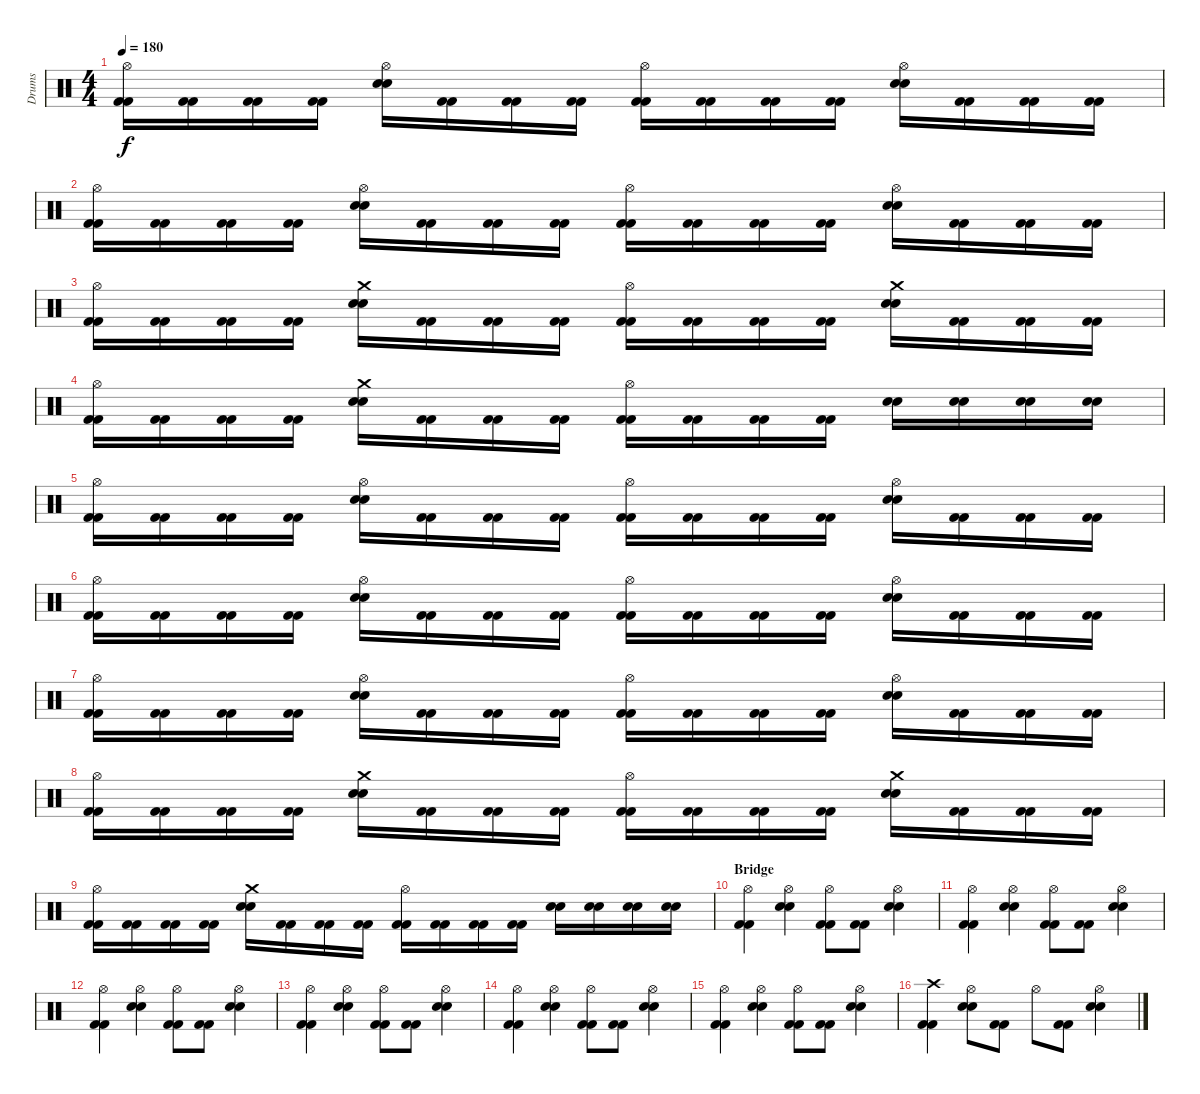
\track ("Drums" "Drums") {instrument percussion}
\staff {score}
\articulation defaults
\ts (4 4)
\tempo 180
\clef neutral
\ks c
("Hi-Hat (open)" "Kick (hit) 2" "Kick (hit) 2").16{dy f} ("Kick (hit) 2" "Kick (hit) 2").16 ("Kick (hit) 2" "Kick (hit) 2").16 ("Kick (hit) 2" "Kick (hit) 2").16 ("Hi-Hat (open)" "Snare (hit) 2" "Snare (hit) 2").16 ("Kick (hit) 2" "Kick (hit) 2").16 ("Kick (hit) 2" "Kick (hit) 2").16 ("Kick (hit) 2" "Kick (hit) 2").16 ("Hi-Hat (open)" "Kick (hit) 2" "Kick (hit) 2").16 ("Kick (hit) 2" "Kick (hit) 2").16 ("Kick (hit) 2" "Kick (hit) 2").16 ("Kick (hit) 2" "Kick (hit) 2").16 ("Hi-Hat (open)" "Snare (hit) 2" "Snare (hit) 2").16 ("Kick (hit) 2" "Kick (hit) 2").16 ("Kick (hit) 2" "Kick (hit) 2").16 ("Kick (hit) 2" "Kick (hit) 2").16 |
("Hi-Hat (open)" "Kick (hit) 2" "Kick (hit) 2").16 ("Kick (hit) 2" "Kick (hit) 2").16 ("Kick (hit) 2" "Kick (hit) 2").16 ("Kick (hit) 2" "Kick (hit) 2").16 ("Hi-Hat (open)" "Snare (hit) 2" "Snare (hit) 2").16 ("Kick (hit) 2" "Kick (hit) 2").16 ("Kick (hit) 2" "Kick (hit) 2").16 ("Kick (hit) 2" "Kick (hit) 2").16 ("Hi-Hat (open)" "Kick (hit) 2" "Kick (hit) 2").16 ("Kick (hit) 2" "Kick (hit) 2").16 ("Kick (hit) 2" "Kick (hit) 2").16 ("Kick (hit) 2" "Kick (hit) 2").16 ("Hi-Hat (open)" "Snare (hit) 2" "Snare (hit) 2").16 ("Kick (hit) 2" "Kick (hit) 2").16 ("Kick (hit) 2" "Kick (hit) 2").16 ("Kick (hit) 2" "Kick (hit) 2").16 |
("Hi-Hat (open)" "Kick (hit) 2" "Kick (hit) 2").16 ("Kick (hit) 2" "Kick (hit) 2").16 ("Kick (hit) 2" "Kick (hit) 2").16 ("Kick (hit) 2" "Kick (hit) 2").16 ("Crash medium (hit)" "Snare (hit) 2" "Snare (hit) 2").16 ("Kick (hit) 2" "Kick (hit) 2").16 ("Kick (hit) 2" "Kick (hit) 2").16 ("Kick (hit) 2" "Kick (hit) 2").16 ("Hi-Hat (open)" "Kick (hit) 2" "Kick (hit) 2").16 ("Kick (hit) 2" "Kick (hit) 2").16 ("Kick (hit) 2" "Kick (hit) 2").16 ("Kick (hit) 2" "Kick (hit) 2").16 ("Crash medium (hit)" "Snare (hit) 2" "Snare (hit) 2").16 ("Kick (hit) 2" "Kick (hit) 2").16 ("Kick (hit) 2" "Kick (hit) 2").16 ("Kick (hit) 2" "Kick (hit) 2").16 |
("Hi-Hat (open)" "Kick (hit) 2" "Kick (hit) 2").16 ("Kick (hit) 2" "Kick (hit) 2").16 ("Kick (hit) 2" "Kick (hit) 2").16 ("Kick (hit) 2" "Kick (hit) 2").16 ("Crash medium (hit)" "Snare (hit) 2" "Snare (hit) 2").16 ("Kick (hit) 2" "Kick (hit) 2").16 ("Kick (hit) 2" "Kick (hit) 2").16 ("Kick (hit) 2" "Kick (hit) 2").16 ("Hi-Hat (open)" "Kick (hit) 2" "Kick (hit) 2").16 ("Kick (hit) 2" "Kick (hit) 2").16 ("Kick (hit) 2" "Kick (hit) 2").16 ("Kick (hit) 2" "Kick (hit) 2").16 ("Snare (hit) 2" "Snare (hit) 2").16 ("Snare (hit) 2" "Snare (hit) 2").16 ("Snare (hit) 2" "Snare (hit) 2").16 ("Snare (hit) 2" "Snare (hit) 2").16 |
("Hi-Hat (open)" "Kick (hit) 2" "Kick (hit) 2").16 ("Kick (hit) 2" "Kick (hit) 2").16 ("Kick (hit) 2" "Kick (hit) 2").16 ("Kick (hit) 2" "Kick (hit) 2").16 ("Hi-Hat (open)" "Snare (hit) 2" "Snare (hit) 2").16 ("Kick (hit) 2" "Kick (hit) 2").16 ("Kick (hit) 2" "Kick (hit) 2").16 ("Kick (hit) 2" "Kick (hit) 2").16 ("Hi-Hat (open)" "Kick (hit) 2" "Kick (hit) 2").16 ("Kick (hit) 2" "Kick (hit) 2").16 ("Kick (hit) 2" "Kick (hit) 2").16 ("Kick (hit) 2" "Kick (hit) 2").16 ("Hi-Hat (open)" "Snare (hit) 2" "Snare (hit) 2").16 ("Kick (hit) 2" "Kick (hit) 2").16 ("Kick (hit) 2" "Kick (hit) 2").16 ("Kick (hit) 2" "Kick (hit) 2").16 |
("Hi-Hat (open)" "Kick (hit) 2" "Kick (hit) 2").16 ("Kick (hit) 2" "Kick (hit) 2").16 ("Kick (hit) 2" "Kick (hit) 2").16 ("Kick (hit) 2" "Kick (hit) 2").16 ("Hi-Hat (open)" "Snare (hit) 2" "Snare (hit) 2").16 ("Kick (hit) 2" "Kick (hit) 2").16 ("Kick (hit) 2" "Kick (hit) 2").16 ("Kick (hit) 2" "Kick (hit) 2").16 ("Hi-Hat (open)" "Kick (hit) 2" "Kick (hit) 2").16 ("Kick (hit) 2" "Kick (hit) 2").16 ("Kick (hit) 2" "Kick (hit) 2").16 ("Kick (hit) 2" "Kick (hit) 2").16 ("Hi-Hat (open)" "Snare (hit) 2" "Snare (hit) 2").16 ("Kick (hit) 2" "Kick (hit) 2").16 ("Kick (hit) 2" "Kick (hit) 2").16 ("Kick (hit) 2" "Kick (hit) 2").16 |
("Hi-Hat (open)" "Kick (hit) 2" "Kick (hit) 2").16 ("Kick (hit) 2" "Kick (hit) 2").16 ("Kick (hit) 2" "Kick (hit) 2").16 ("Kick (hit) 2" "Kick (hit) 2").16 ("Hi-Hat (open)" "Snare (hit) 2" "Snare (hit) 2").16 ("Kick (hit) 2" "Kick (hit) 2").16 ("Kick (hit) 2" "Kick (hit) 2").16 ("Kick (hit) 2" "Kick (hit) 2").16 ("Hi-Hat (open)" "Kick (hit) 2" "Kick (hit) 2").16 ("Kick (hit) 2" "Kick (hit) 2").16 ("Kick (hit) 2" "Kick (hit) 2").16 ("Kick (hit) 2" "Kick (hit) 2").16 ("Hi-Hat (open)" "Snare (hit) 2" "Snare (hit) 2").16 ("Kick (hit) 2" "Kick (hit) 2").16 ("Kick (hit) 2" "Kick (hit) 2").16 ("Kick (hit) 2" "Kick (hit) 2").16 |
("Hi-Hat (open)" "Kick (hit) 2" "Kick (hit) 2").16 ("Kick (hit) 2" "Kick (hit) 2").16 ("Kick (hit) 2" "Kick (hit) 2").16 ("Kick (hit) 2" "Kick (hit) 2").16 ("Crash medium (hit)" "Snare (hit) 2" "Snare (hit) 2").16 ("Kick (hit) 2" "Kick (hit) 2").16 ("Kick (hit) 2" "Kick (hit) 2").16 ("Kick (hit) 2" "Kick (hit) 2").16 ("Hi-Hat (open)" "Kick (hit) 2" "Kick (hit) 2").16 ("Kick (hit) 2" "Kick (hit) 2").16 ("Kick (hit) 2" "Kick (hit) 2").16 ("Kick (hit) 2" "Kick (hit) 2").16 ("Crash medium (hit)" "Snare (hit) 2" "Snare (hit) 2").16 ("Kick (hit) 2" "Kick (hit) 2").16 ("Kick (hit) 2" "Kick (hit) 2").16 ("Kick (hit) 2" "Kick (hit) 2").16 |
("Hi-Hat (open)" "Kick (hit) 2" "Kick (hit) 2").16 ("Kick (hit) 2" "Kick (hit) 2").16 ("Kick (hit) 2" "Kick (hit) 2").16 ("Kick (hit) 2" "Kick (hit) 2").16 ("Crash medium (hit)" "Snare (hit) 2" "Snare (hit) 2").16 ("Kick (hit) 2" "Kick (hit) 2").16 ("Kick (hit) 2" "Kick (hit) 2").16 ("Kick (hit) 2" "Kick (hit) 2").16 ("Hi-Hat (open)" "Kick (hit) 2" "Kick (hit) 2").16 ("Kick (hit) 2" "Kick (hit) 2").16 ("Kick (hit) 2" "Kick (hit) 2").16 ("Kick (hit) 2" "Kick (hit) 2").16 ("Snare (hit) 2" "Snare (hit) 2").16 ("Snare (hit) 2" "Snare (hit) 2").16 ("Snare (hit) 2" "Snare (hit) 2").16 ("Snare (hit) 2" "Snare (hit) 2").16 |
\section ("" "Bridge")
("Hi-Hat (open)" "Kick (hit) 2" "Kick (hit) 2").4 ("Hi-Hat (open)" "Snare (hit) 2" "Snare (hit) 2").4 ("Hi-Hat (open)" "Kick (hit) 2" "Kick (hit) 2").8 ("Kick (hit) 2" "Kick (hit) 2").8 ("Hi-Hat (open)" "Snare (hit) 2" "Snare (hit) 2").4 |
("Hi-Hat (open)" "Kick (hit) 2" "Kick (hit) 2").4 ("Hi-Hat (open)" "Snare (hit) 2" "Snare (hit) 2").4 ("Hi-Hat (open)" "Kick (hit) 2" "Kick (hit) 2").8 ("Kick (hit) 2" "Kick (hit) 2").8 ("Hi-Hat (open)" "Snare (hit) 2" "Snare (hit) 2").4 |
("Hi-Hat (open)" "Kick (hit) 2" "Kick (hit) 2").4 ("Hi-Hat (open)" "Snare (hit) 2" "Snare (hit) 2").4 ("Hi-Hat (open)" "Kick (hit) 2" "Kick (hit) 2").8 ("Kick (hit) 2" "Kick (hit) 2").8 ("Hi-Hat (open)" "Snare (hit) 2" "Snare (hit) 2").4 |
("Hi-Hat (open)" "Kick (hit) 2" "Kick (hit) 2").4 ("Hi-Hat (open)" "Snare (hit) 2" "Snare (hit) 2").4 ("Hi-Hat (open)" "Kick (hit) 2" "Kick (hit) 2").8 ("Kick (hit) 2" "Kick (hit) 2").8 ("Hi-Hat (open)" "Snare (hit) 2" "Snare (hit) 2").4 |
("Hi-Hat (open)" "Kick (hit) 2" "Kick (hit) 2").4 ("Hi-Hat (open)" "Snare (hit) 2" "Snare (hit) 2").4 ("Hi-Hat (open)" "Kick (hit) 2" "Kick (hit) 2").8 ("Kick (hit) 2" "Kick (hit) 2").8 ("Hi-Hat (open)" "Snare (hit) 2" "Snare (hit) 2").4 |
("Hi-Hat (open)" "Kick (hit) 2" "Kick (hit) 2").4 ("Hi-Hat (open)" "Snare (hit) 2" "Snare (hit) 2").4 ("Hi-Hat (open)" "Kick (hit) 2" "Kick (hit) 2").8 ("Kick (hit) 2" "Kick (hit) 2").8 ("Hi-Hat (open)" "Snare (hit) 2" "Snare (hit) 2").4 |
("Crash high (hit)" "Kick (hit) 2" "Kick (hit) 2").4 ("Hi-Hat (open)" "Snare (hit) 2" "Snare (hit) 2").8 ("Kick (hit) 2" "Kick (hit) 2").8 "Hi-Hat (open)".8 ("Kick (hit) 2" "Kick (hit) 2").8 ("Hi-Hat (open)" "Snare (hit) 2" "Snare (hit) 2").4
